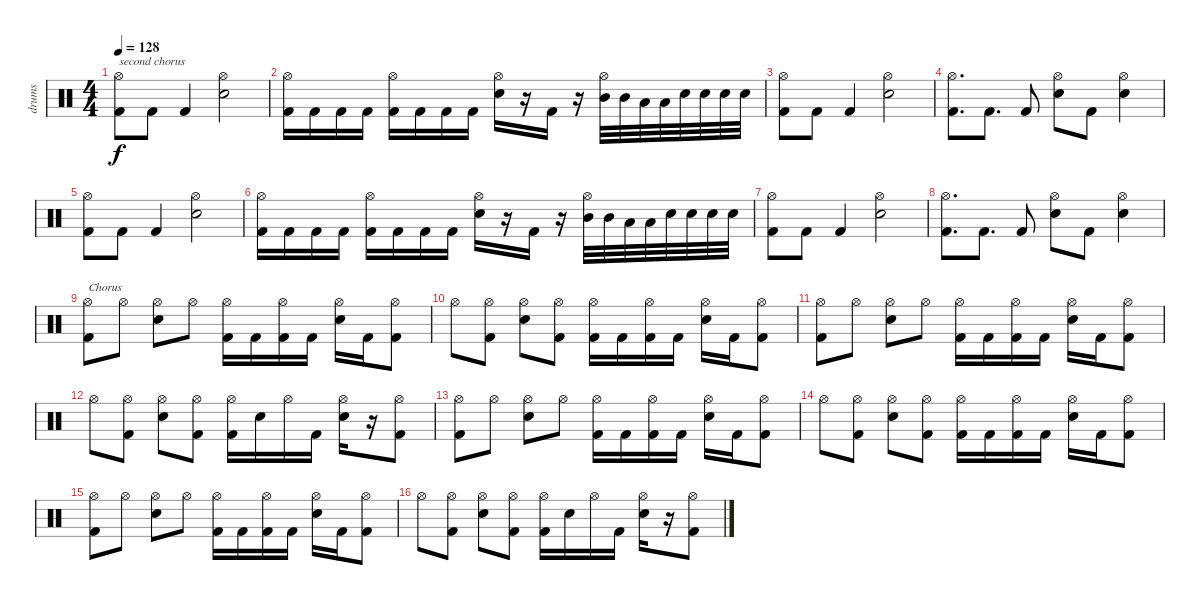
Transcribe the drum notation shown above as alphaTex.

\track ("drums" "drums") {instrument percussion}
\staff {score}
\articulation defaults
\ts (4 4)
\tempo 128
\clef neutral
\ks c
("Hi-Hat (open)" "Kick (hit) 2").8{txt "second chorus" dy f} "Kick (hit) 2".8 "Kick (hit) 2".4 ("Hi-Hat (open)" "Snare (hit) 2").2 |
("Hi-Hat (open)" "Kick (hit) 2").16 "Kick (hit) 2".16 "Kick (hit) 2".16 "Kick (hit) 2".16 ("Hi-Hat (open)" "Kick (hit) 2").16 "Kick (hit) 2".16 "Kick (hit) 2".16 "Kick (hit) 2".16 ("Hi-Hat (open)" "Snare (hit) 2").16 r.16 "Kick (hit) 2".16 r.16 ("Hi-Hat (open)" "Mid Tom (hit)").32 "Mid Tom (hit)".32 "Low Tom (hit)".32 "Low Tom (hit)".32 "Snare (hit) 2".32 "Snare (hit) 2".32 "Snare (hit) 2".32 "Snare (hit) 2".32 |
("Hi-Hat (open)" "Kick (hit) 2").8 "Kick (hit) 2".8 "Kick (hit) 2".4 ("Hi-Hat (open)" "Snare (hit) 2").2 |
("Hi-Hat (open)" "Kick (hit) 2").8{d} "Kick (hit) 2".8{d} "Kick (hit) 2".8 ("Hi-Hat (open)" "Snare (hit) 2").8 "Kick (hit) 2".8 ("Hi-Hat (open)" "Snare (hit) 2").4 |
("Hi-Hat (open)" "Kick (hit) 2").8 "Kick (hit) 2".8 "Kick (hit) 2".4 ("Hi-Hat (open)" "Snare (hit) 2").2 |
("Hi-Hat (open)" "Kick (hit) 2").16 "Kick (hit) 2".16 "Kick (hit) 2".16 "Kick (hit) 2".16 ("Hi-Hat (open)" "Kick (hit) 2").16 "Kick (hit) 2".16 "Kick (hit) 2".16 "Kick (hit) 2".16 ("Hi-Hat (open)" "Snare (hit) 2").16 r.16 "Kick (hit) 2".16 r.16 ("Hi-Hat (open)" "Mid Tom (hit)").32 "Mid Tom (hit)".32 "Low Tom (hit)".32 "Low Tom (hit)".32 "Snare (hit) 2".32 "Snare (hit) 2".32 "Snare (hit) 2".32 "Snare (hit) 2".32 |
("Hi-Hat (open)" "Kick (hit) 2").8 "Kick (hit) 2".8 "Kick (hit) 2".4 ("Hi-Hat (open)" "Snare (hit) 2").2 |
("Hi-Hat (open)" "Kick (hit) 2").8{d} "Kick (hit) 2".8{d} "Kick (hit) 2".8 ("Hi-Hat (open)" "Snare (hit) 2").8 "Kick (hit) 2".8 ("Hi-Hat (open)" "Snare (hit) 2").4 |
("Hi-Hat (open)" "Kick (hit) 2").8{txt "Chorus"} "Hi-Hat (open)".8 ("Hi-Hat (open)" "Snare (hit) 2").8 "Hi-Hat (open)".8 ("Hi-Hat (open)" "Kick (hit) 2").16 "Kick (hit) 2".16 ("Hi-Hat (open)" "Kick (hit) 2").16 "Kick (hit) 2".16 ("Hi-Hat (open)" "Snare (hit) 2").16 "Kick (hit) 2".16 ("Hi-Hat (open)" "Kick (hit) 2").8 |
"Hi-Hat (open)".8 ("Hi-Hat (open)" "Kick (hit) 2").8 ("Hi-Hat (open)" "Snare (hit) 2").8 ("Hi-Hat (open)" "Kick (hit) 2").8 ("Hi-Hat (open)" "Kick (hit) 2").16 "Kick (hit) 2".16 ("Hi-Hat (open)" "Kick (hit) 2").16 "Kick (hit) 2".16 ("Hi-Hat (open)" "Snare (hit) 2").16 "Kick (hit) 2".16 ("Hi-Hat (open)" "Kick (hit) 2").8 |
("Hi-Hat (open)" "Kick (hit) 2").8 "Hi-Hat (open)".8 ("Hi-Hat (open)" "Snare (hit) 2").8 "Hi-Hat (open)".8 ("Hi-Hat (open)" "Kick (hit) 2").16 "Kick (hit) 2".16 ("Hi-Hat (open)" "Kick (hit) 2").16 "Kick (hit) 2".16 ("Hi-Hat (open)" "Snare (hit) 2").16 "Kick (hit) 2".16 ("Hi-Hat (open)" "Kick (hit) 2").8 |
"Hi-Hat (open)".8 ("Hi-Hat (open)" "Kick (hit) 2").8 ("Hi-Hat (open)" "Snare (hit) 2").8 ("Hi-Hat (open)" "Kick (hit) 2").8 ("Hi-Hat (open)" "Kick (hit) 2").16 "Snare (hit) 2".16 "Hi-Hat (open)".16 "Kick (hit) 2".16 ("Hi-Hat (open)" "Snare (hit) 2").16 r.16 ("Hi-Hat (open)" "Kick (hit) 2").8 |
("Hi-Hat (open)" "Kick (hit) 2").8 "Hi-Hat (open)".8 ("Hi-Hat (open)" "Snare (hit) 2").8 "Hi-Hat (open)".8 ("Hi-Hat (open)" "Kick (hit) 2").16 "Kick (hit) 2".16 ("Hi-Hat (open)" "Kick (hit) 2").16 "Kick (hit) 2".16 ("Hi-Hat (open)" "Snare (hit) 2").16 "Kick (hit) 2".16 ("Hi-Hat (open)" "Kick (hit) 2").8 |
"Hi-Hat (open)".8 ("Hi-Hat (open)" "Kick (hit) 2").8 ("Hi-Hat (open)" "Snare (hit) 2").8 ("Hi-Hat (open)" "Kick (hit) 2").8 ("Hi-Hat (open)" "Kick (hit) 2").16 "Kick (hit) 2".16 ("Hi-Hat (open)" "Kick (hit) 2").16 "Kick (hit) 2".16 ("Hi-Hat (open)" "Snare (hit) 2").16 "Kick (hit) 2".16 ("Hi-Hat (open)" "Kick (hit) 2").8 |
("Hi-Hat (open)" "Kick (hit) 2").8 "Hi-Hat (open)".8 ("Hi-Hat (open)" "Snare (hit) 2").8 "Hi-Hat (open)".8 ("Hi-Hat (open)" "Kick (hit) 2").16 "Kick (hit) 2".16 ("Hi-Hat (open)" "Kick (hit) 2").16 "Kick (hit) 2".16 ("Hi-Hat (open)" "Snare (hit) 2").16 "Kick (hit) 2".16 ("Hi-Hat (open)" "Kick (hit) 2").8 |
"Hi-Hat (open)".8 ("Hi-Hat (open)" "Kick (hit) 2").8 ("Hi-Hat (open)" "Snare (hit) 2").8 ("Hi-Hat (open)" "Kick (hit) 2").8 ("Hi-Hat (open)" "Kick (hit) 2").16 "Snare (hit) 2".16 "Hi-Hat (open)".16 "Kick (hit) 2".16 ("Hi-Hat (open)" "Snare (hit) 2").16 r.16 ("Hi-Hat (open)" "Kick (hit) 2").8
